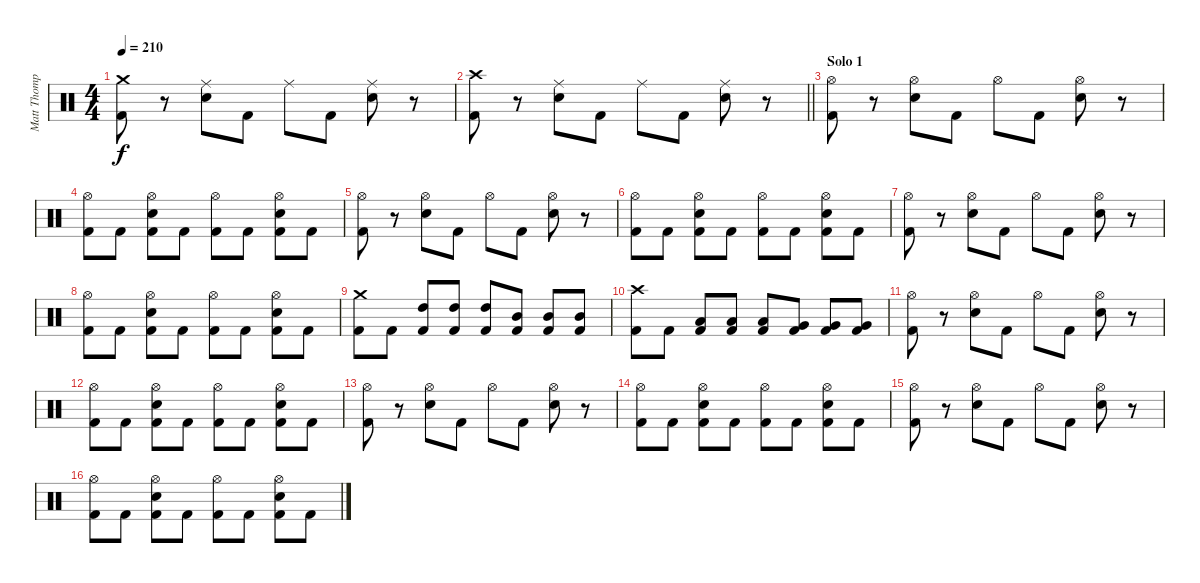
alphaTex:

\track ("Matt Thompson" "Matt Thomp") {instrument percussion}
\staff {score}
\articulation defaults
\ts (4 4)
\tempo 210
\clef neutral
\ks c
("Crash medium (hit)" "Kick (hit) 2").8{dy f} r.8 ("Ride (middle)" "Electric Snare (hit)").8 "Kick (hit) 2".8 "Ride (middle)".8 "Kick (hit) 2".8 ("Ride (middle)" "Electric Snare (hit)").8 r.8 |
\barLineRight lightlight
("Crash high (hit)" "Kick (hit) 2").8 r.8 ("Ride (middle)" "Electric Snare (hit)").8 "Kick (hit) 2".8 "Ride (middle)".8 "Kick (hit) 2".8 ("Ride (middle)" "Electric Snare (hit)").8 r.8 |
\section ("" "Solo 1")
("Hi-Hat (open)" "Kick (hit) 2").8 r.8 ("Hi-Hat (open)" "Electric Snare (hit)").8 "Kick (hit) 2".8 "Hi-Hat (open)".8 "Kick (hit) 2".8 ("Hi-Hat (open)" "Electric Snare (hit)").8 r.8 |
("Hi-Hat (open)" "Kick (hit) 2").8 "Kick (hit) 2".8 ("Hi-Hat (open)" "Electric Snare (hit)" "Kick (hit) 2").8 "Kick (hit) 2".8 ("Hi-Hat (open)" "Kick (hit) 2").8 "Kick (hit) 2".8 ("Hi-Hat (open)" "Electric Snare (hit)" "Kick (hit) 2").8 "Kick (hit) 2".8 |
("Hi-Hat (open)" "Kick (hit) 2").8 r.8 ("Hi-Hat (open)" "Electric Snare (hit)").8 "Kick (hit) 2".8 "Hi-Hat (open)".8 "Kick (hit) 2".8 ("Hi-Hat (open)" "Electric Snare (hit)").8 r.8 |
("Hi-Hat (open)" "Kick (hit) 2").8 "Kick (hit) 2".8 ("Hi-Hat (open)" "Electric Snare (hit)" "Kick (hit) 2").8 "Kick (hit) 2".8 ("Hi-Hat (open)" "Kick (hit) 2").8 "Kick (hit) 2".8 ("Hi-Hat (open)" "Electric Snare (hit)" "Kick (hit) 2").8 "Kick (hit) 2".8 |
("Hi-Hat (open)" "Kick (hit) 2").8 r.8 ("Hi-Hat (open)" "Electric Snare (hit)").8 "Kick (hit) 2".8 "Hi-Hat (open)".8 "Kick (hit) 2".8 ("Hi-Hat (open)" "Electric Snare (hit)").8 r.8 |
("Hi-Hat (open)" "Kick (hit) 2").8 "Kick (hit) 2".8 ("Hi-Hat (open)" "Electric Snare (hit)" "Kick (hit) 2").8 "Kick (hit) 2".8 ("Hi-Hat (open)" "Kick (hit) 2").8 "Kick (hit) 2".8 ("Hi-Hat (open)" "Electric Snare (hit)" "Kick (hit) 2").8 "Kick (hit) 2".8 |
("Crash medium (hit)" "Kick (hit) 2").8 "Kick (hit) 2".8 ("High Tom (hit)" "Kick (hit) 2").8 ("High Tom (hit)" "Kick (hit) 2").8 ("High Tom (hit)" "Kick (hit) 2").8 ("Mid Tom (hit)" "Kick (hit) 2").8 ("Mid Tom (hit)" "Kick (hit) 2").8 ("Mid Tom (hit)" "Kick (hit) 2").8 |
("Crash high (hit)" "Kick (hit) 2").8 "Kick (hit) 2".8 ("Low Tom (hit)" "Kick (hit) 2").8 ("Low Tom (hit)" "Kick (hit) 2").8 ("Low Tom (hit)" "Kick (hit) 2").8 ("Very Low Tom (hit)" "Kick (hit) 2").8 ("Very Low Tom (hit)" "Kick (hit) 2").8 ("Very Low Tom (hit)" "Kick (hit) 2").8 |
("Hi-Hat (open)" "Kick (hit) 2").8 r.8 ("Hi-Hat (open)" "Electric Snare (hit)").8 "Kick (hit) 2".8 "Hi-Hat (open)".8 "Kick (hit) 2".8 ("Hi-Hat (open)" "Electric Snare (hit)").8 r.8 |
("Hi-Hat (open)" "Kick (hit) 2").8 "Kick (hit) 2".8 ("Hi-Hat (open)" "Electric Snare (hit)" "Kick (hit) 2").8 "Kick (hit) 2".8 ("Hi-Hat (open)" "Kick (hit) 2").8 "Kick (hit) 2".8 ("Hi-Hat (open)" "Electric Snare (hit)" "Kick (hit) 2").8 "Kick (hit) 2".8 |
("Hi-Hat (open)" "Kick (hit) 2").8 r.8 ("Hi-Hat (open)" "Electric Snare (hit)").8 "Kick (hit) 2".8 "Hi-Hat (open)".8 "Kick (hit) 2".8 ("Hi-Hat (open)" "Electric Snare (hit)").8 r.8 |
("Hi-Hat (open)" "Kick (hit) 2").8 "Kick (hit) 2".8 ("Hi-Hat (open)" "Electric Snare (hit)" "Kick (hit) 2").8 "Kick (hit) 2".8 ("Hi-Hat (open)" "Kick (hit) 2").8 "Kick (hit) 2".8 ("Hi-Hat (open)" "Electric Snare (hit)" "Kick (hit) 2").8 "Kick (hit) 2".8 |
("Hi-Hat (open)" "Kick (hit) 2").8 r.8 ("Hi-Hat (open)" "Electric Snare (hit)").8 "Kick (hit) 2".8 "Hi-Hat (open)".8 "Kick (hit) 2".8 ("Hi-Hat (open)" "Electric Snare (hit)").8 r.8 |
("Hi-Hat (open)" "Kick (hit) 2").8 "Kick (hit) 2".8 ("Hi-Hat (open)" "Electric Snare (hit)" "Kick (hit) 2").8 "Kick (hit) 2".8 ("Hi-Hat (open)" "Kick (hit) 2").8 "Kick (hit) 2".8 ("Hi-Hat (open)" "Electric Snare (hit)" "Kick (hit) 2").8 "Kick (hit) 2".8
